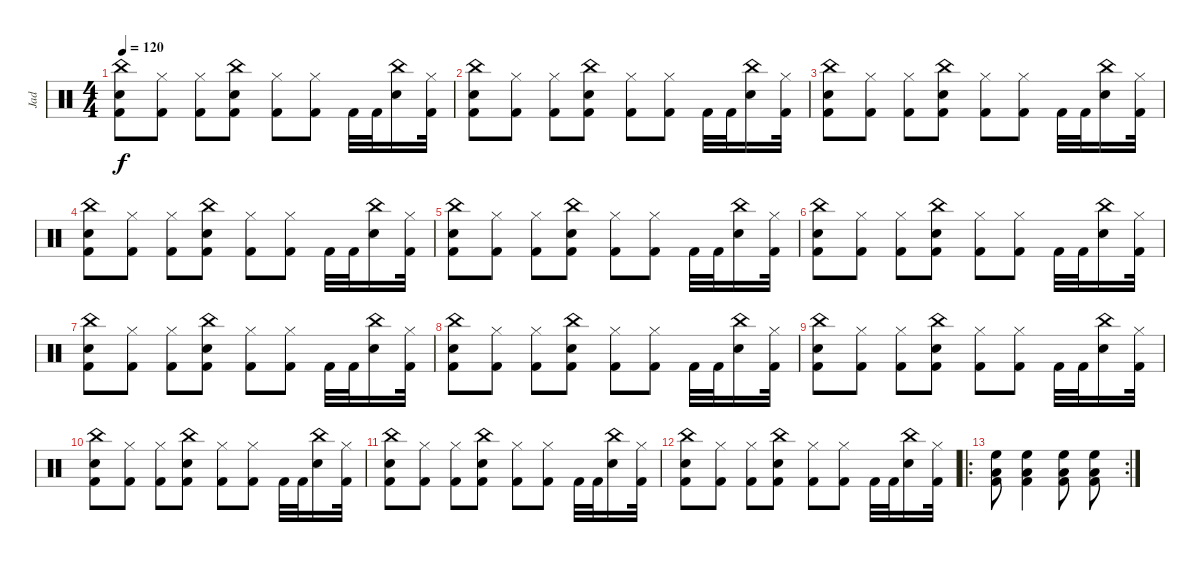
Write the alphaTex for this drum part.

\track ("Jad" "Jad") {instrument percussion}
\staff {score}
\articulation defaults
\ts (4 4)
\tempo 120
\clef neutral
\ks c
("Electric Snare (hit)" "Kick (hit) 2" "China (hit)").8{dy f} ("Hi-Hat (closed)" "Kick (hit) 2").8 ("Hi-Hat (closed)" "Kick (hit) 2").8 ("Electric Snare (hit)" "Kick (hit) 2" "China (hit)").8 ("Hi-Hat (closed)" "Kick (hit) 2").8 ("Hi-Hat (closed)" "Kick (hit) 2").8 "Kick (hit) 2".32 "Kick (hit) 2".32 ("Electric Snare (hit)" "China (hit)").16 ("Hi-Hat (closed)" "Kick (hit) 2").32 |
("Electric Snare (hit)" "Kick (hit) 2" "China (hit)").8 ("Hi-Hat (closed)" "Kick (hit) 2").8 ("Hi-Hat (closed)" "Kick (hit) 2").8 ("Electric Snare (hit)" "Kick (hit) 2" "China (hit)").8 ("Hi-Hat (closed)" "Kick (hit) 2").8 ("Hi-Hat (closed)" "Kick (hit) 2").8 "Kick (hit) 2".32 "Kick (hit) 2".32 ("Electric Snare (hit)" "China (hit)").16 ("Hi-Hat (closed)" "Kick (hit) 2").32 |
("Electric Snare (hit)" "Kick (hit) 2" "China (hit)").8 ("Hi-Hat (closed)" "Kick (hit) 2").8 ("Hi-Hat (closed)" "Kick (hit) 2").8 ("Electric Snare (hit)" "Kick (hit) 2" "China (hit)").8 ("Hi-Hat (closed)" "Kick (hit) 2").8 ("Hi-Hat (closed)" "Kick (hit) 2").8 "Kick (hit) 2".32 "Kick (hit) 2".32 ("Electric Snare (hit)" "China (hit)").16 ("Hi-Hat (closed)" "Kick (hit) 2").32 |
("Electric Snare (hit)" "Kick (hit) 2" "China (hit)").8 ("Hi-Hat (closed)" "Kick (hit) 2").8 ("Hi-Hat (closed)" "Kick (hit) 2").8 ("Electric Snare (hit)" "Kick (hit) 2" "China (hit)").8 ("Hi-Hat (closed)" "Kick (hit) 2").8 ("Hi-Hat (closed)" "Kick (hit) 2").8 "Kick (hit) 2".32 "Kick (hit) 2".32 ("Electric Snare (hit)" "China (hit)").16 ("Hi-Hat (closed)" "Kick (hit) 2").32 |
("Electric Snare (hit)" "Kick (hit) 2" "China (hit)").8 ("Hi-Hat (closed)" "Kick (hit) 2").8 ("Hi-Hat (closed)" "Kick (hit) 2").8 ("Electric Snare (hit)" "Kick (hit) 2" "China (hit)").8 ("Hi-Hat (closed)" "Kick (hit) 2").8 ("Hi-Hat (closed)" "Kick (hit) 2").8 "Kick (hit) 2".32 "Kick (hit) 2".32 ("Electric Snare (hit)" "China (hit)").16 ("Hi-Hat (closed)" "Kick (hit) 2").32 |
("Electric Snare (hit)" "Kick (hit) 2" "China (hit)").8 ("Hi-Hat (closed)" "Kick (hit) 2").8 ("Hi-Hat (closed)" "Kick (hit) 2").8 ("Electric Snare (hit)" "Kick (hit) 2" "China (hit)").8 ("Hi-Hat (closed)" "Kick (hit) 2").8 ("Hi-Hat (closed)" "Kick (hit) 2").8 "Kick (hit) 2".32 "Kick (hit) 2".32 ("Electric Snare (hit)" "China (hit)").16 ("Hi-Hat (closed)" "Kick (hit) 2").32 |
("Electric Snare (hit)" "Kick (hit) 2" "China (hit)").8 ("Hi-Hat (closed)" "Kick (hit) 2").8 ("Hi-Hat (closed)" "Kick (hit) 2").8 ("Electric Snare (hit)" "Kick (hit) 2" "China (hit)").8 ("Hi-Hat (closed)" "Kick (hit) 2").8 ("Hi-Hat (closed)" "Kick (hit) 2").8 "Kick (hit) 2".32 "Kick (hit) 2".32 ("Electric Snare (hit)" "China (hit)").16 ("Hi-Hat (closed)" "Kick (hit) 2").32 |
("Electric Snare (hit)" "Kick (hit) 2" "China (hit)").8 ("Hi-Hat (closed)" "Kick (hit) 2").8 ("Hi-Hat (closed)" "Kick (hit) 2").8 ("Electric Snare (hit)" "Kick (hit) 2" "China (hit)").8 ("Hi-Hat (closed)" "Kick (hit) 2").8 ("Hi-Hat (closed)" "Kick (hit) 2").8 "Kick (hit) 2".32 "Kick (hit) 2".32 ("Electric Snare (hit)" "China (hit)").16 ("Hi-Hat (closed)" "Kick (hit) 2").32 |
("Electric Snare (hit)" "Kick (hit) 2" "China (hit)").8 ("Hi-Hat (closed)" "Kick (hit) 2").8 ("Hi-Hat (closed)" "Kick (hit) 2").8 ("Electric Snare (hit)" "Kick (hit) 2" "China (hit)").8 ("Hi-Hat (closed)" "Kick (hit) 2").8 ("Hi-Hat (closed)" "Kick (hit) 2").8 "Kick (hit) 2".32 "Kick (hit) 2".32 ("Electric Snare (hit)" "China (hit)").16 ("Hi-Hat (closed)" "Kick (hit) 2").32 |
("Electric Snare (hit)" "Kick (hit) 2" "China (hit)").8 ("Hi-Hat (closed)" "Kick (hit) 2").8 ("Hi-Hat (closed)" "Kick (hit) 2").8 ("Electric Snare (hit)" "Kick (hit) 2" "China (hit)").8 ("Hi-Hat (closed)" "Kick (hit) 2").8 ("Hi-Hat (closed)" "Kick (hit) 2").8 "Kick (hit) 2".32 "Kick (hit) 2".32 ("Electric Snare (hit)" "China (hit)").16 ("Hi-Hat (closed)" "Kick (hit) 2").32 |
("Electric Snare (hit)" "Kick (hit) 2" "China (hit)").8 ("Hi-Hat (closed)" "Kick (hit) 2").8 ("Hi-Hat (closed)" "Kick (hit) 2").8 ("Electric Snare (hit)" "Kick (hit) 2" "China (hit)").8 ("Hi-Hat (closed)" "Kick (hit) 2").8 ("Hi-Hat (closed)" "Kick (hit) 2").8 "Kick (hit) 2".32 "Kick (hit) 2".32 ("Electric Snare (hit)" "China (hit)").16 ("Hi-Hat (closed)" "Kick (hit) 2").32 |
("Electric Snare (hit)" "Kick (hit) 2" "China (hit)").8 ("Hi-Hat (closed)" "Kick (hit) 2").8 ("Hi-Hat (closed)" "Kick (hit) 2").8 ("Electric Snare (hit)" "Kick (hit) 2" "China (hit)").8 ("Hi-Hat (closed)" "Kick (hit) 2").8 ("Hi-Hat (closed)" "Kick (hit) 2").8 "Kick (hit) 2".32 "Kick (hit) 2".32 ("Electric Snare (hit)" "China (hit)").16 ("Hi-Hat (closed)" "Kick (hit) 2").32 |
\ro
\rc 2
("Low Tom (hit)" "High Floor Tom (hit)" "Kick (hit) 2").8 ("Low Tom (hit)" "High Floor Tom (hit)" "Kick (hit) 2").4 ("Low Tom (hit)" "High Floor Tom (hit)" "Kick (hit) 2").8 ("Low Tom (hit)" "High Floor Tom (hit)" "Kick (hit) 2").8
